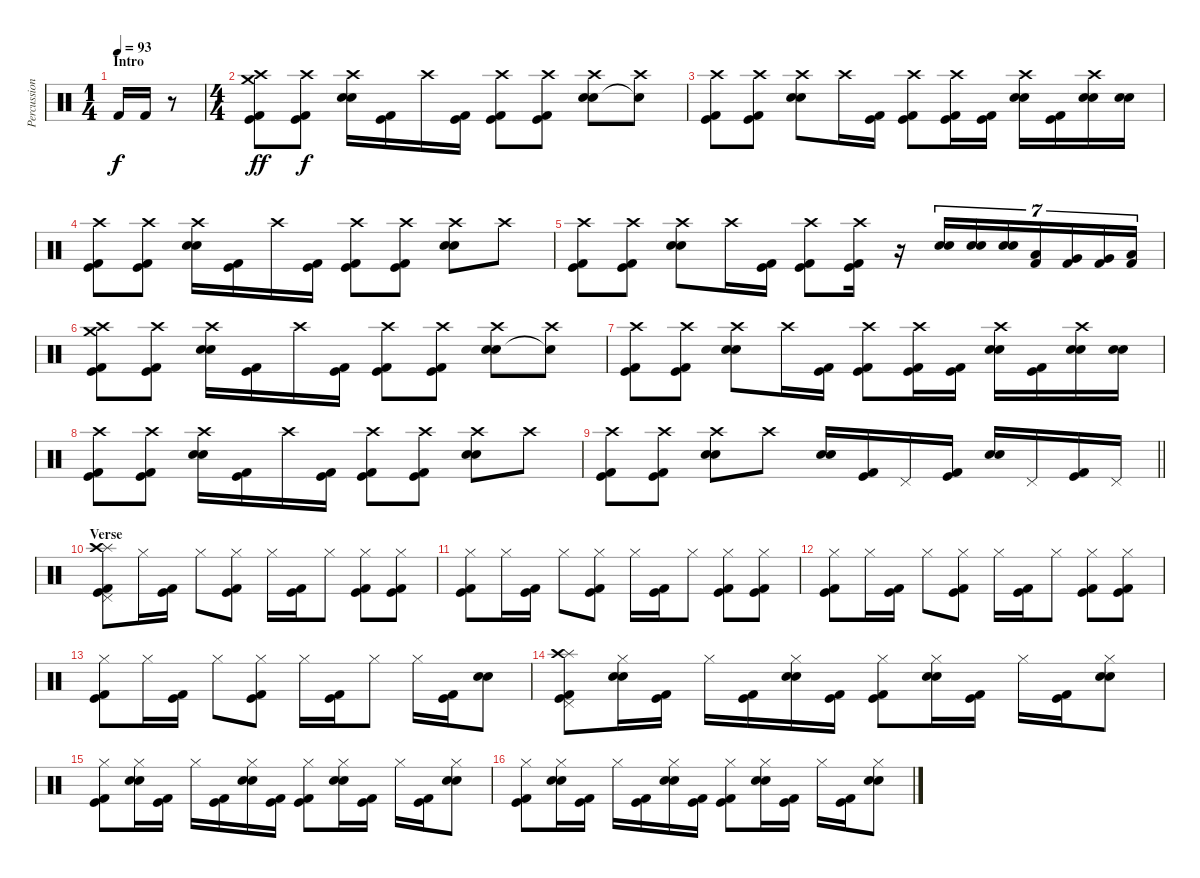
\track ("Percussion" "Percussion") {instrument percussion}
\staff {score}
\articulation defaults
\ts (1 4)
\section ("" "Intro")
\tempo 93
\clef neutral
\ks c "Kick (hit) 2".16{dy f} "Kick (hit) 2".16
r.8 |
\ts (4 4)
("Kick (hit) 2" "Kick (hit)" "Crash high (hit)" "Crash medium (hit)").8{dy ff} ("Kick (hit) 2" "Kick (hit)" "Crash high (hit)").8{dy f} ("Electric Snare (hit)" "Snare (hit) 2" "Crash high (hit)").16 ("Kick (hit) 2" "Kick (hit)").16 "Crash high (hit)".16 ("Kick (hit) 2" "Kick (hit)").16 ("Kick (hit) 2" "Kick (hit)" "Crash high (hit)").8 ("Kick (hit) 2" "Kick (hit)" "Crash high (hit)").8 ("Electric Snare (hit)" "Snare (hit) 2" "Crash high (hit)").8 ("Crash high (hit)" "Snare (hit)"{t}).8 |
("Kick (hit) 2" "Kick (hit)" "Crash high (hit)").8 ("Kick (hit) 2" "Kick (hit)" "Crash high (hit)").8 ("Electric Snare (hit)" "Snare (hit) 2" "Crash high (hit)").8 "Crash high (hit)".16 ("Kick (hit) 2" "Kick (hit)").16 ("Kick (hit) 2" "Kick (hit)" "Crash high (hit)").8 ("Kick (hit) 2" "Kick (hit)" "Crash high (hit)").16 ("Kick (hit) 2" "Kick (hit)").16 ("Electric Snare (hit)" "Snare (hit) 2" "Crash high (hit)").16 ("Kick (hit) 2" "Kick (hit)").16 ("Electric Snare (hit)" "Snare (hit) 2" "Crash high (hit)").16 ("Electric Snare (hit)" "Snare (hit) 2").16 |
("Kick (hit) 2" "Kick (hit)" "Crash high (hit)").8 ("Kick (hit) 2" "Kick (hit)" "Crash high (hit)").8 ("Electric Snare (hit)" "Snare (hit) 2" "Crash high (hit)").16 ("Kick (hit) 2" "Kick (hit)").16 "Crash high (hit)".16 ("Kick (hit) 2" "Kick (hit)").16 ("Kick (hit) 2" "Kick (hit)" "Crash high (hit)").8 ("Kick (hit) 2" "Kick (hit)" "Crash high (hit)").8 ("Electric Snare (hit)" "Snare (hit) 2" "Crash high (hit)").8 "Crash high (hit)".8 |
("Kick (hit) 2" "Kick (hit)" "Crash high (hit)").8 ("Kick (hit) 2" "Kick (hit)" "Crash high (hit)").8 ("Electric Snare (hit)" "Snare (hit) 2" "Crash high (hit)").8 "Crash high (hit)".16 ("Kick (hit) 2" "Kick (hit)").16 ("Kick (hit) 2" "Kick (hit)" "Crash high (hit)").8 ("Kick (hit) 2" "Kick (hit)" "Crash high (hit)").16 r.16 ("Electric Snare (hit)" "Snare (hit) 2").16{tu (7 4)} ("Electric Snare (hit)" "Snare (hit) 2").16{tu (7 4)} ("Electric Snare (hit)" "Snare (hit) 2").16{tu (7 4)} ("Kick (hit) 2" "Low Tom (hit)").16{tu (7 4)} ("Kick (hit) 2" "Very Low Tom (hit)").16{tu (7 4)} ("Kick (hit) 2" "Very Low Tom (hit)").16{tu (7 4)} ("Kick (hit) 2" "Low Floor Tom (hit)").16{tu (7 4)} |
("Kick (hit) 2" "Kick (hit)" "Crash high (hit)" "Crash medium (hit)").8 ("Kick (hit) 2" "Kick (hit)" "Crash high (hit)").8 ("Electric Snare (hit)" "Snare (hit) 2" "Crash high (hit)").16 ("Kick (hit) 2" "Kick (hit)").16 "Crash high (hit)".16 ("Kick (hit) 2" "Kick (hit)").16 ("Kick (hit) 2" "Kick (hit)" "Crash high (hit)").8 ("Kick (hit) 2" "Kick (hit)" "Crash high (hit)").8 ("Electric Snare (hit)" "Snare (hit) 2" "Crash high (hit)").8 ("Crash high (hit)" "Snare (hit)"{t}).8 |
("Kick (hit) 2" "Kick (hit)" "Crash high (hit)").8 ("Kick (hit) 2" "Kick (hit)" "Crash high (hit)").8 ("Electric Snare (hit)" "Snare (hit) 2" "Crash high (hit)").8 "Crash high (hit)".16 ("Kick (hit) 2" "Kick (hit)").16 ("Kick (hit) 2" "Kick (hit)" "Crash high (hit)").8 ("Kick (hit) 2" "Kick (hit)" "Crash high (hit)").16 ("Kick (hit) 2" "Kick (hit)").16 ("Electric Snare (hit)" "Snare (hit) 2" "Crash high (hit)").16 ("Kick (hit) 2" "Kick (hit)").16 ("Electric Snare (hit)" "Snare (hit) 2" "Crash high (hit)").16 ("Electric Snare (hit)" "Snare (hit) 2").16 |
("Kick (hit) 2" "Kick (hit)" "Crash high (hit)").8 ("Kick (hit) 2" "Kick (hit)" "Crash high (hit)").8 ("Electric Snare (hit)" "Snare (hit) 2" "Crash high (hit)").16 ("Kick (hit) 2" "Kick (hit)").16 "Crash high (hit)".16 ("Kick (hit) 2" "Kick (hit)").16 ("Kick (hit) 2" "Kick (hit)" "Crash high (hit)").8 ("Kick (hit) 2" "Kick (hit)" "Crash high (hit)").8 ("Electric Snare (hit)" "Snare (hit) 2" "Crash high (hit)").8 "Crash high (hit)".8 |
\barLineRight lightlight
("Kick (hit) 2" "Kick (hit)" "Crash high (hit)").8 ("Kick (hit) 2" "Kick (hit)" "Crash high (hit)").8 ("Electric Snare (hit)" "Snare (hit) 2" "Crash high (hit)").8 "Crash high (hit)".8 ("Electric Snare (hit)" "Snare (hit) 2").16 ("Kick (hit) 2" "Kick (hit)").16 "Pedal Hi-Hat (hit)".16 ("Kick (hit) 2" "Kick (hit)").16 ("Electric Snare (hit)" "Snare (hit) 2").16 "Pedal Hi-Hat (hit)".16 ("Kick (hit) 2" "Kick (hit)").16 "Pedal Hi-Hat (hit)".16 |
\section ("" "Verse")
("Kick (hit) 2" "Kick (hit)" "Pedal Hi-Hat (hit)" "Splash (hit)" "Crash high (hit)").8 "Hi-Hat (closed)".16 ("Kick (hit) 2" "Kick (hit)").16 "Hi-Hat (closed)".8 ("Kick (hit) 2" "Kick (hit)" "Hi-Hat (closed)").8 "Hi-Hat (closed)".16 ("Kick (hit) 2" "Kick (hit)").16 "Hi-Hat (closed)".8 ("Kick (hit) 2" "Kick (hit)" "Hi-Hat (closed)").8 ("Kick (hit) 2" "Kick (hit)" "Hi-Hat (closed)").8 |
("Kick (hit) 2" "Kick (hit)" "Hi-Hat (closed)").8 "Hi-Hat (closed)".16 ("Kick (hit) 2" "Kick (hit)").16 "Hi-Hat (closed)".8 ("Kick (hit) 2" "Kick (hit)" "Hi-Hat (closed)").8 "Hi-Hat (closed)".16 ("Kick (hit) 2" "Kick (hit)").16 "Hi-Hat (closed)".8 ("Kick (hit) 2" "Kick (hit)" "Hi-Hat (closed)").8 ("Kick (hit) 2" "Kick (hit)" "Hi-Hat (closed)").8 |
("Kick (hit) 2" "Kick (hit)" "Hi-Hat (closed)").8 "Hi-Hat (closed)".16 ("Kick (hit) 2" "Kick (hit)").16 "Hi-Hat (closed)".8 ("Kick (hit) 2" "Kick (hit)" "Hi-Hat (closed)").8 "Hi-Hat (closed)".16 ("Kick (hit) 2" "Kick (hit)").16 "Hi-Hat (closed)".8 ("Kick (hit) 2" "Kick (hit)" "Hi-Hat (closed)").8 ("Kick (hit) 2" "Kick (hit)" "Hi-Hat (closed)").8 |
("Kick (hit) 2" "Kick (hit)" "Hi-Hat (closed)").8 "Hi-Hat (closed)".16 ("Kick (hit) 2" "Kick (hit)").16 "Hi-Hat (closed)".8 ("Kick (hit) 2" "Kick (hit)" "Hi-Hat (closed)").8 "Hi-Hat (closed)".16 ("Kick (hit) 2" "Kick (hit)").16 "Hi-Hat (closed)".8 "Hi-Hat (closed)".16 ("Kick (hit) 2" "Kick (hit)").16 ("Electric Snare (hit)" "Snare (hit) 2").8 |
("Kick (hit) 2" "Kick (hit)" "Pedal Hi-Hat (hit)" "Splash (hit)" "Crash high (hit)").8 ("Electric Snare (hit)" "Snare (hit) 2" "Hi-Hat (closed)").16 ("Kick (hit) 2" "Kick (hit)").16 "Hi-Hat (closed)".16 ("Kick (hit) 2" "Kick (hit)").16 ("Electric Snare (hit)" "Snare (hit) 2" "Hi-Hat (closed)").16 ("Kick (hit) 2" "Kick (hit)").16 ("Kick (hit) 2" "Kick (hit)" "Hi-Hat (closed)").8 ("Electric Snare (hit)" "Snare (hit) 2" "Hi-Hat (closed)").16 ("Kick (hit) 2" "Kick (hit)").16 "Hi-Hat (closed)".16 ("Kick (hit) 2" "Kick (hit)").16 ("Electric Snare (hit)" "Snare (hit) 2" "Hi-Hat (closed)").8 |
("Kick (hit) 2" "Kick (hit)" "Hi-Hat (closed)").8 ("Electric Snare (hit)" "Snare (hit) 2" "Hi-Hat (closed)").16 ("Kick (hit) 2" "Kick (hit)").16 "Hi-Hat (closed)".16 ("Kick (hit) 2" "Kick (hit)").16 ("Electric Snare (hit)" "Snare (hit) 2" "Hi-Hat (closed)").16 ("Kick (hit) 2" "Kick (hit)").16 ("Kick (hit) 2" "Kick (hit)" "Hi-Hat (closed)").8 ("Electric Snare (hit)" "Snare (hit) 2" "Hi-Hat (closed)").16 ("Kick (hit) 2" "Kick (hit)").16 "Hi-Hat (closed)".16 ("Kick (hit) 2" "Kick (hit)").16 ("Electric Snare (hit)" "Snare (hit) 2" "Hi-Hat (closed)").8 |
("Kick (hit) 2" "Kick (hit)" "Hi-Hat (closed)").8 ("Electric Snare (hit)" "Snare (hit) 2" "Hi-Hat (closed)").16 ("Kick (hit) 2" "Kick (hit)").16 "Hi-Hat (closed)".16 ("Kick (hit) 2" "Kick (hit)").16 ("Electric Snare (hit)" "Snare (hit) 2" "Hi-Hat (closed)").16 ("Kick (hit) 2" "Kick (hit)").16 ("Kick (hit) 2" "Kick (hit)" "Hi-Hat (closed)").8 ("Electric Snare (hit)" "Snare (hit) 2" "Hi-Hat (closed)").16 ("Kick (hit) 2" "Kick (hit)").16 "Hi-Hat (closed)".16 ("Kick (hit) 2" "Kick (hit)").16 ("Electric Snare (hit)" "Snare (hit) 2" "Hi-Hat (closed)").8
